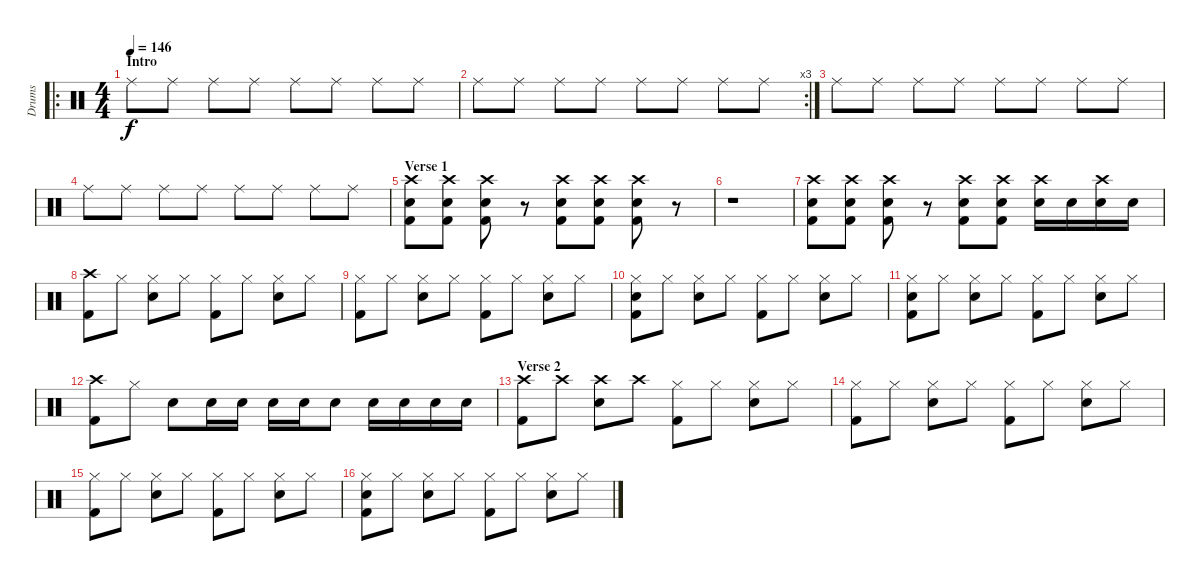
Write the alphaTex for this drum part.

\track ("Drums" "Drums") {instrument percussion}
\staff {score}
\articulation defaults
\ro
\ts (4 4)
\section ("" "Intro")
\tempo 146
\clef neutral
\ks c "Ride (middle)".8{dy f} "Ride (middle)".8 "Ride (middle)".8 "Ride (middle)".8 "Ride (middle)".8 "Ride (middle)".8 "Ride (middle)".8 "Ride (middle)".8
|
\rc 3 "Ride (middle)".8 "Ride (middle)".8 "Ride (middle)".8 "Ride (middle)".8 "Ride (middle)".8 "Ride (middle)".8 "Ride (middle)".8 "Ride (middle)".8
|
"Ride (middle)".8 "Ride (middle)".8 "Ride (middle)".8 "Ride (middle)".8 "Ride (middle)".8 "Ride (middle)".8 "Ride (middle)".8 "Ride (middle)".8 |
"Ride (middle)".8 "Ride (middle)".8 "Ride (middle)".8 "Ride (middle)".8 "Ride (middle)".8 "Ride (middle)".8 "Ride (middle)".8 "Ride (middle)".8 |
\section ("" "Verse 1")
("Crash high (hit)" "Snare (hit) 2" "Kick (hit) 2").8 ("Crash high (hit)" "Snare (hit) 2" "Kick (hit) 2").8 ("Crash high (hit)" "Snare (hit) 2" "Kick (hit) 2").8 r.8 ("Crash high (hit)" "Snare (hit) 2" "Kick (hit) 2").8 ("Crash high (hit)" "Snare (hit) 2" "Kick (hit) 2").8 ("Crash high (hit)" "Snare (hit) 2" "Kick (hit) 2").8 r.8 |
r.1 |
("Crash high (hit)" "Snare (hit) 2" "Kick (hit) 2").8 ("Crash high (hit)" "Snare (hit) 2" "Kick (hit) 2").8 ("Crash high (hit)" "Snare (hit) 2" "Kick (hit) 2").8 r.8 ("Crash high (hit)" "Snare (hit) 2" "Kick (hit) 2").8 ("Crash high (hit)" "Snare (hit) 2" "Kick (hit) 2").8 ("Crash high (hit)" "Snare (hit) 2").16 "Snare (hit) 2".16 ("Crash high (hit)" "Snare (hit) 2").16 "Snare (hit) 2".16 |
("Crash high (hit)" "Kick (hit) 2").8 "Hi-Hat (closed)".8 ("Hi-Hat (closed)" "Snare (hit) 2").8 "Hi-Hat (closed)".8 ("Hi-Hat (closed)" "Kick (hit) 2").8 "Hi-Hat (closed)".8 ("Hi-Hat (closed)" "Snare (hit) 2").8 "Hi-Hat (closed)".8 |
("Hi-Hat (closed)" "Kick (hit) 2").8 "Hi-Hat (closed)".8 ("Hi-Hat (closed)" "Snare (hit) 2").8 "Hi-Hat (closed)".8 ("Hi-Hat (closed)" "Kick (hit) 2").8 "Hi-Hat (closed)".8 ("Hi-Hat (closed)" "Snare (hit) 2").8 "Hi-Hat (closed)".8 |
("Hi-Hat (closed)" "Snare (hit) 2" "Kick (hit) 2").8 "Hi-Hat (closed)".8 ("Hi-Hat (closed)" "Snare (hit) 2").8 "Hi-Hat (closed)".8 ("Hi-Hat (closed)" "Kick (hit) 2").8 "Hi-Hat (closed)".8 ("Hi-Hat (closed)" "Snare (hit) 2").8 "Hi-Hat (closed)".8 |
("Hi-Hat (closed)" "Snare (hit) 2" "Kick (hit) 2").8 "Hi-Hat (closed)".8 ("Hi-Hat (closed)" "Snare (hit) 2").8 "Hi-Hat (closed)".8 ("Hi-Hat (closed)" "Kick (hit) 2").8 "Hi-Hat (closed)".8 ("Hi-Hat (closed)" "Snare (hit) 2").8 "Hi-Hat (closed)".8 |
("Crash high (hit)" "Kick (hit) 2").8 "Hi-Hat (closed)".8 "Snare (hit) 2".8 "Snare (hit) 2".16 "Snare (hit) 2".16 "Snare (hit) 2".16 "Snare (hit) 2".16 "Snare (hit) 2".8 "Snare (hit) 2".16 "Snare (hit) 2".16 "Snare (hit) 2".16 "Snare (hit) 2".16 |
\section ("" "Verse 2")
("Crash high (hit)" "Kick (hit) 2").8 "Crash high (hit)".8 ("Crash high (hit)" "Snare (hit) 2").8 "Crash high (hit)".8 ("Hi-Hat (closed)" "Kick (hit) 2").8 "Hi-Hat (closed)".8 ("Hi-Hat (closed)" "Snare (hit) 2").8 "Hi-Hat (closed)".8 |
("Hi-Hat (closed)" "Kick (hit) 2").8 "Hi-Hat (closed)".8 ("Hi-Hat (closed)" "Snare (hit) 2").8 "Hi-Hat (closed)".8 ("Hi-Hat (closed)" "Kick (hit) 2").8 "Hi-Hat (closed)".8 ("Hi-Hat (closed)" "Snare (hit) 2").8 "Hi-Hat (closed)".8 |
("Hi-Hat (closed)" "Kick (hit) 2").8 "Hi-Hat (closed)".8 ("Hi-Hat (closed)" "Snare (hit) 2").8 "Hi-Hat (closed)".8 ("Hi-Hat (closed)" "Kick (hit) 2").8 "Hi-Hat (closed)".8 ("Hi-Hat (closed)" "Snare (hit) 2").8 "Hi-Hat (closed)".8 |
("Hi-Hat (closed)" "Snare (hit) 2" "Kick (hit) 2").8 "Hi-Hat (closed)".8 ("Hi-Hat (closed)" "Snare (hit) 2").8 "Hi-Hat (closed)".8 ("Hi-Hat (closed)" "Kick (hit) 2").8 "Hi-Hat (closed)".8 ("Hi-Hat (closed)" "Snare (hit) 2").8 "Hi-Hat (closed)".8
